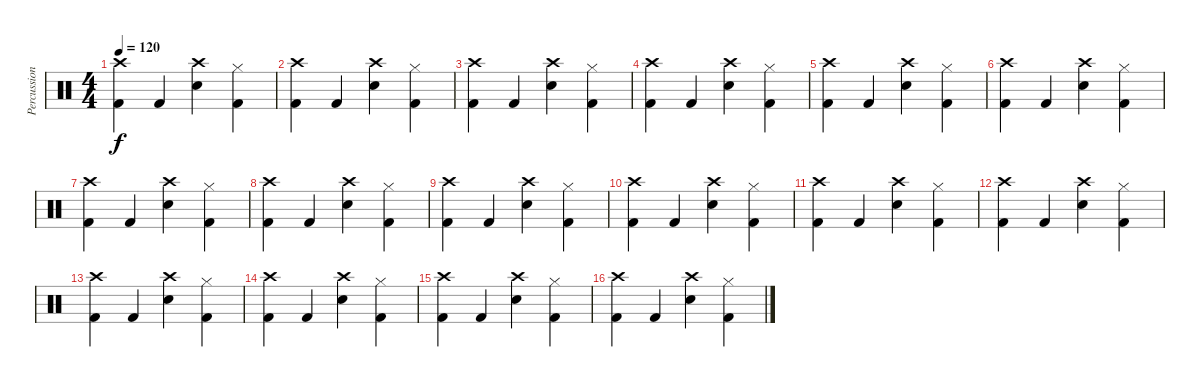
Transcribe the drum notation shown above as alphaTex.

\track ("Percussion" "Percussion") {instrument percussion}
\staff {score}
\articulation defaults
\ts (4 4)
\tempo 120
\clef neutral
\ks c
("Crash high (hit)" "Kick (hit) 2").4{dy f} "Kick (hit) 2".4 ("Crash high (hit)" "Electric Snare (hit)").4 ("Hi-Hat (closed)" "Kick (hit) 2").4 |
("Crash high (hit)" "Kick (hit) 2").4 "Kick (hit) 2".4 ("Crash high (hit)" "Electric Snare (hit)").4 ("Hi-Hat (closed)" "Kick (hit) 2").4 |
("Crash high (hit)" "Kick (hit) 2").4 "Kick (hit) 2".4 ("Crash high (hit)" "Electric Snare (hit)").4 ("Hi-Hat (closed)" "Kick (hit) 2").4 |
("Crash high (hit)" "Kick (hit) 2").4 "Kick (hit) 2".4 ("Crash high (hit)" "Electric Snare (hit)").4 ("Hi-Hat (closed)" "Kick (hit) 2").4 |
("Crash high (hit)" "Kick (hit) 2").4 "Kick (hit) 2".4 ("Crash high (hit)" "Electric Snare (hit)").4 ("Hi-Hat (closed)" "Kick (hit) 2").4 |
("Crash high (hit)" "Kick (hit) 2").4 "Kick (hit) 2".4 ("Crash high (hit)" "Electric Snare (hit)").4 ("Hi-Hat (closed)" "Kick (hit) 2").4 |
("Crash high (hit)" "Kick (hit) 2").4 "Kick (hit) 2".4 ("Crash high (hit)" "Electric Snare (hit)").4 ("Hi-Hat (closed)" "Kick (hit) 2").4 |
("Crash high (hit)" "Kick (hit) 2").4 "Kick (hit) 2".4 ("Crash high (hit)" "Electric Snare (hit)").4 ("Hi-Hat (closed)" "Kick (hit) 2").4 |
("Crash high (hit)" "Kick (hit) 2").4 "Kick (hit) 2".4 ("Crash high (hit)" "Electric Snare (hit)").4 ("Hi-Hat (closed)" "Kick (hit) 2").4 |
("Crash high (hit)" "Kick (hit) 2").4 "Kick (hit) 2".4 ("Crash high (hit)" "Electric Snare (hit)").4 ("Hi-Hat (closed)" "Kick (hit) 2").4 |
("Crash high (hit)" "Kick (hit) 2").4 "Kick (hit) 2".4 ("Crash high (hit)" "Electric Snare (hit)").4 ("Hi-Hat (closed)" "Kick (hit) 2").4 |
("Crash high (hit)" "Kick (hit) 2").4 "Kick (hit) 2".4 ("Crash high (hit)" "Electric Snare (hit)").4 ("Hi-Hat (closed)" "Kick (hit) 2").4 |
("Crash high (hit)" "Kick (hit) 2").4 "Kick (hit) 2".4 ("Crash high (hit)" "Electric Snare (hit)").4 ("Hi-Hat (closed)" "Kick (hit) 2").4 |
("Crash high (hit)" "Kick (hit) 2").4 "Kick (hit) 2".4 ("Crash high (hit)" "Electric Snare (hit)").4 ("Hi-Hat (closed)" "Kick (hit) 2").4 |
("Crash high (hit)" "Kick (hit) 2").4 "Kick (hit) 2".4 ("Crash high (hit)" "Electric Snare (hit)").4 ("Hi-Hat (closed)" "Kick (hit) 2").4 |
("Crash high (hit)" "Kick (hit) 2").4 "Kick (hit) 2".4 ("Crash high (hit)" "Electric Snare (hit)").4 ("Hi-Hat (closed)" "Kick (hit) 2").4
